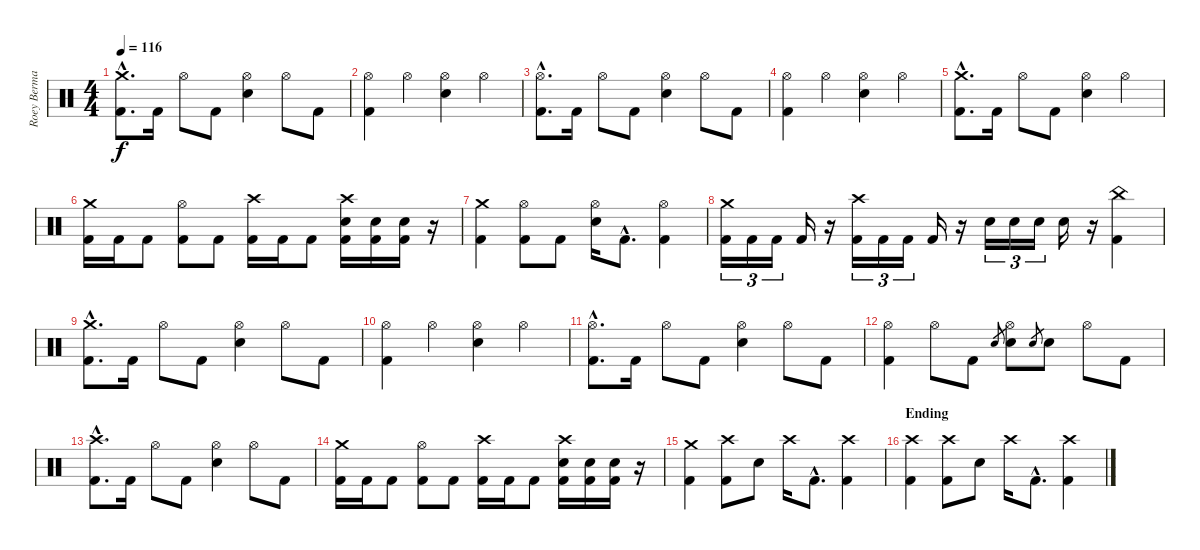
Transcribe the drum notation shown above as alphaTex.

\track ("Roey Berman" "Roey Berma") {instrument percussion}
\staff {score}
\articulation defaults
\ts (4 4)
\section ("" "")
\tempo 116
\clef neutral
\ks c
("Crash medium (hit)"{hac} "Kick (hit) 2"{hac}).8{d dy f} "Kick (hit) 2".16 "Hi-Hat (open)".8 "Kick (hit) 2".8 ("Hi-Hat (open)" "Electric Snare (hit)").4 "Hi-Hat (open)".8 "Kick (hit) 2".8 |
("Hi-Hat (open)" "Kick (hit) 2").4 "Hi-Hat (open)".4 ("Hi-Hat (open)" "Electric Snare (hit)").4 "Hi-Hat (open)".4 |
("Hi-Hat (open)"{hac} "Kick (hit) 2"{hac}).8{d} "Kick (hit) 2".16 "Hi-Hat (open)".8 "Kick (hit) 2".8 ("Hi-Hat (open)" "Electric Snare (hit)").4 "Hi-Hat (open)".8 "Kick (hit) 2".8 |
("Hi-Hat (open)" "Kick (hit) 2").4 "Hi-Hat (open)".4 ("Hi-Hat (open)" "Electric Snare (hit)").4 "Hi-Hat (open)".4 |
("Crash medium (hit)"{hac} "Kick (hit) 2"{hac}).8{d} "Kick (hit) 2".16 "Hi-Hat (open)".8 "Kick (hit) 2".8 ("Hi-Hat (open)" "Electric Snare (hit)").4 "Hi-Hat (open)".4 |
("Crash medium (hit)" "Kick (hit) 2").16 "Kick (hit) 2".16 "Kick (hit) 2".8 ("Hi-Hat (open)" "Kick (hit) 2").8 "Kick (hit) 2".8 ("Crash high (hit)" "Kick (hit) 2").16 "Kick (hit) 2".16 "Kick (hit) 2".8 ("Crash high (hit)" "Electric Snare (hit)" "Kick (hit) 2").16 ("Electric Snare (hit)" "Kick (hit) 2").16 ("Electric Snare (hit)" "Kick (hit) 2").16 r.16 |
("Crash medium (hit)" "Kick (hit) 2").4 ("Hi-Hat (open)" "Kick (hit) 2").8 "Kick (hit) 2".8 ("Hi-Hat (open)" "Electric Snare (hit)").16 "Kick (hit) 2"{hac}.8{d} ("Hi-Hat (open)" "Kick (hit) 2").4 |
("Crash medium (hit)" "Kick (hit) 2").16{tu (3 2)} "Kick (hit) 2".16{tu (3 2)} "Kick (hit) 2".16{tu (3 2)} "Kick (hit) 2".16 r.16 ("Crash high (hit)" "Kick (hit) 2").16{tu (3 2)} "Kick (hit) 2".16{tu (3 2)} "Kick (hit) 2".16{tu (3 2)} "Kick (hit) 2".16 r.16 "Electric Snare (hit)".16{tu (3 2)} "Electric Snare (hit)".16{tu (3 2)} "Electric Snare (hit)".16{tu (3 2)} "Electric Snare (hit)".16 r.16 ("China (hit)" "Kick (hit) 2").4 |
\section ("" "")
("Crash medium (hit)"{hac} "Kick (hit) 2"{hac}).8{d} "Kick (hit) 2".16 "Hi-Hat (open)".8 "Kick (hit) 2".8 ("Hi-Hat (open)" "Electric Snare (hit)").4 "Hi-Hat (open)".8 "Kick (hit) 2".8 |
("Hi-Hat (open)" "Kick (hit) 2").4 "Hi-Hat (open)".4 ("Hi-Hat (open)" "Electric Snare (hit)").4 "Hi-Hat (open)".4 |
("Hi-Hat (open)"{hac} "Kick (hit) 2"{hac}).8{d} "Kick (hit) 2".16 "Hi-Hat (open)".8 "Kick (hit) 2".8 ("Hi-Hat (open)" "Electric Snare (hit)").4 "Hi-Hat (open)".8 "Kick (hit) 2".8 |
("Hi-Hat (open)" "Kick (hit) 2").4 "Hi-Hat (open)".8 "Kick (hit) 2".8 "Electric Snare (hit)".8{gr} ("Hi-Hat (open)" "Electric Snare (hit)").8 "Electric Snare (hit)".8{gr} "Electric Snare (hit)".8 "Hi-Hat (open)".8 "Kick (hit) 2".8 |
("Crash high (hit)"{hac} "Kick (hit) 2"{hac}).8{d} "Kick (hit) 2".16 "Hi-Hat (open)".8 "Kick (hit) 2".8 ("Hi-Hat (open)" "Electric Snare (hit)").4 "Hi-Hat (open)".8 "Kick (hit) 2".8 |
("Crash medium (hit)" "Kick (hit) 2").16 "Kick (hit) 2".16 "Kick (hit) 2".8 ("Hi-Hat (open)" "Kick (hit) 2").8 "Kick (hit) 2".8 ("Crash high (hit)" "Kick (hit) 2").16 "Kick (hit) 2".16 "Kick (hit) 2".8 ("Crash high (hit)" "Electric Snare (hit)" "Kick (hit) 2").16 ("Electric Snare (hit)" "Kick (hit) 2").16 ("Electric Snare (hit)" "Kick (hit) 2").16 r.16 |
("Crash medium (hit)" "Kick (hit) 2").4 ("Crash high (hit)" "Kick (hit) 2").8 "Electric Snare (hit)".8 "Crash high (hit)".16 "Kick (hit) 2"{hac}.8{d} ("Crash high (hit)" "Kick (hit) 2").4 |
\section ("" "Ending")
("Crash high (hit)" "Kick (hit) 2").4 ("Crash high (hit)" "Kick (hit) 2").8 "Electric Snare (hit)".8 "Crash high (hit)".16 "Kick (hit) 2"{hac}.8{d} ("Crash high (hit)" "Kick (hit) 2").4
